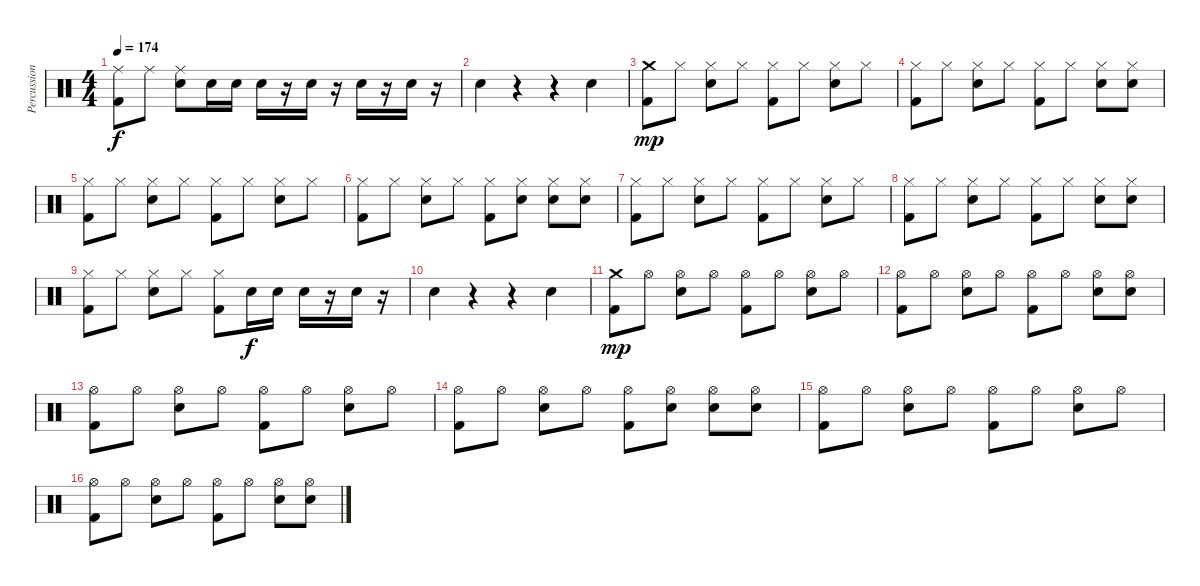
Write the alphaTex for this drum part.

\track ("Percussion" "Percussion") {instrument percussion}
\staff {score}
\articulation defaults
\ts (4 4)
\tempo 174
\clef neutral
\ks c
("Ride (middle)" "Kick (hit) 2").8{dy f} "Ride (middle)".8 ("Ride (middle)" "Electric Snare (hit)").8 "Electric Snare (hit)".16 "Electric Snare (hit)".16 "Electric Snare (hit)".16 r.16 "Electric Snare (hit)".16 r.16 "Electric Snare (hit)".16 r.16 "Electric Snare (hit)".16 r.16 |
"Electric Snare (hit)".4 r.4 r.4 "Electric Snare (hit)".4 |
("Crash medium (hit)" "Kick (hit) 2").8{dy mp} "Hi-Hat (closed)".8 ("Hi-Hat (closed)" "Electric Snare (hit)").8 "Hi-Hat (closed)".8 ("Hi-Hat (closed)" "Kick (hit) 2").8 "Hi-Hat (closed)".8 ("Hi-Hat (closed)" "Electric Snare (hit)").8 "Hi-Hat (closed)".8 |
("Hi-Hat (closed)" "Kick (hit) 2").8 "Hi-Hat (closed)".8 ("Hi-Hat (closed)" "Electric Snare (hit)").8 "Hi-Hat (closed)".8 ("Hi-Hat (closed)" "Kick (hit) 2").8 "Hi-Hat (closed)".8 ("Hi-Hat (closed)" "Electric Snare (hit)").8 ("Hi-Hat (closed)" "Electric Snare (hit)").8 |
("Hi-Hat (closed)" "Kick (hit) 2").8 "Hi-Hat (closed)".8 ("Hi-Hat (closed)" "Electric Snare (hit)").8 "Hi-Hat (closed)".8 ("Hi-Hat (closed)" "Kick (hit) 2").8 "Hi-Hat (closed)".8 ("Hi-Hat (closed)" "Electric Snare (hit)").8 "Hi-Hat (closed)".8 |
("Hi-Hat (closed)" "Kick (hit) 2").8 "Hi-Hat (closed)".8 ("Hi-Hat (closed)" "Electric Snare (hit)").8 "Hi-Hat (closed)".8 ("Hi-Hat (closed)" "Kick (hit) 2").8 ("Hi-Hat (closed)" "Electric Snare (hit)").8 ("Hi-Hat (closed)" "Electric Snare (hit)").8 ("Hi-Hat (closed)" "Electric Snare (hit)").8 |
("Hi-Hat (closed)" "Kick (hit) 2").8 "Hi-Hat (closed)".8 ("Hi-Hat (closed)" "Electric Snare (hit)").8 "Hi-Hat (closed)".8 ("Hi-Hat (closed)" "Kick (hit) 2").8 "Hi-Hat (closed)".8 ("Hi-Hat (closed)" "Electric Snare (hit)").8 "Hi-Hat (closed)".8 |
("Hi-Hat (closed)" "Kick (hit) 2").8 "Hi-Hat (closed)".8 ("Hi-Hat (closed)" "Electric Snare (hit)").8 "Hi-Hat (closed)".8 ("Hi-Hat (closed)" "Kick (hit) 2").8 "Hi-Hat (closed)".8 ("Hi-Hat (closed)" "Electric Snare (hit)").8 ("Hi-Hat (closed)" "Electric Snare (hit)").8 |
("Hi-Hat (closed)" "Kick (hit) 2").8 "Hi-Hat (closed)".8 ("Hi-Hat (closed)" "Electric Snare (hit)").8 "Hi-Hat (closed)".8 ("Hi-Hat (closed)" "Kick (hit) 2").8 "Electric Snare (hit)".16{dy f} "Electric Snare (hit)".16 "Electric Snare (hit)".16 r.16 "Electric Snare (hit)".16 r.16 |
"Electric Snare (hit)".4 r.4 r.4 "Electric Snare (hit)".4 |
("Crash medium (hit)" "Kick (hit) 2").8{dy mp} "Hi-Hat (open)".8 ("Hi-Hat (open)" "Electric Snare (hit)").8 "Hi-Hat (open)".8 ("Hi-Hat (open)" "Kick (hit) 2").8 "Hi-Hat (open)".8 ("Hi-Hat (open)" "Electric Snare (hit)").8 "Hi-Hat (open)".8 |
("Hi-Hat (open)" "Kick (hit) 2").8 "Hi-Hat (open)".8 ("Hi-Hat (open)" "Electric Snare (hit)").8 "Hi-Hat (open)".8 ("Hi-Hat (open)" "Kick (hit) 2").8 "Hi-Hat (open)".8 ("Hi-Hat (open)" "Electric Snare (hit)").8 ("Hi-Hat (open)" "Electric Snare (hit)").8 |
("Hi-Hat (open)" "Kick (hit) 2").8 "Hi-Hat (open)".8 ("Hi-Hat (open)" "Electric Snare (hit)").8 "Hi-Hat (open)".8 ("Hi-Hat (open)" "Kick (hit) 2").8 "Hi-Hat (open)".8 ("Hi-Hat (open)" "Electric Snare (hit)").8 "Hi-Hat (open)".8 |
("Hi-Hat (open)" "Kick (hit) 2").8 "Hi-Hat (open)".8 ("Hi-Hat (open)" "Electric Snare (hit)").8 "Hi-Hat (open)".8 ("Hi-Hat (open)" "Kick (hit) 2").8 ("Hi-Hat (open)" "Electric Snare (hit)").8 ("Hi-Hat (open)" "Electric Snare (hit)").8 ("Hi-Hat (open)" "Electric Snare (hit)").8 |
("Hi-Hat (open)" "Kick (hit) 2").8 "Hi-Hat (open)".8 ("Hi-Hat (open)" "Electric Snare (hit)").8 "Hi-Hat (open)".8 ("Hi-Hat (open)" "Kick (hit) 2").8 "Hi-Hat (open)".8 ("Hi-Hat (open)" "Electric Snare (hit)").8 "Hi-Hat (open)".8 |
("Hi-Hat (open)" "Kick (hit) 2").8 "Hi-Hat (open)".8 ("Hi-Hat (open)" "Electric Snare (hit)").8 "Hi-Hat (open)".8 ("Hi-Hat (open)" "Kick (hit) 2").8 "Hi-Hat (open)".8 ("Hi-Hat (open)" "Electric Snare (hit)").8 ("Hi-Hat (open)" "Electric Snare (hit)").8
